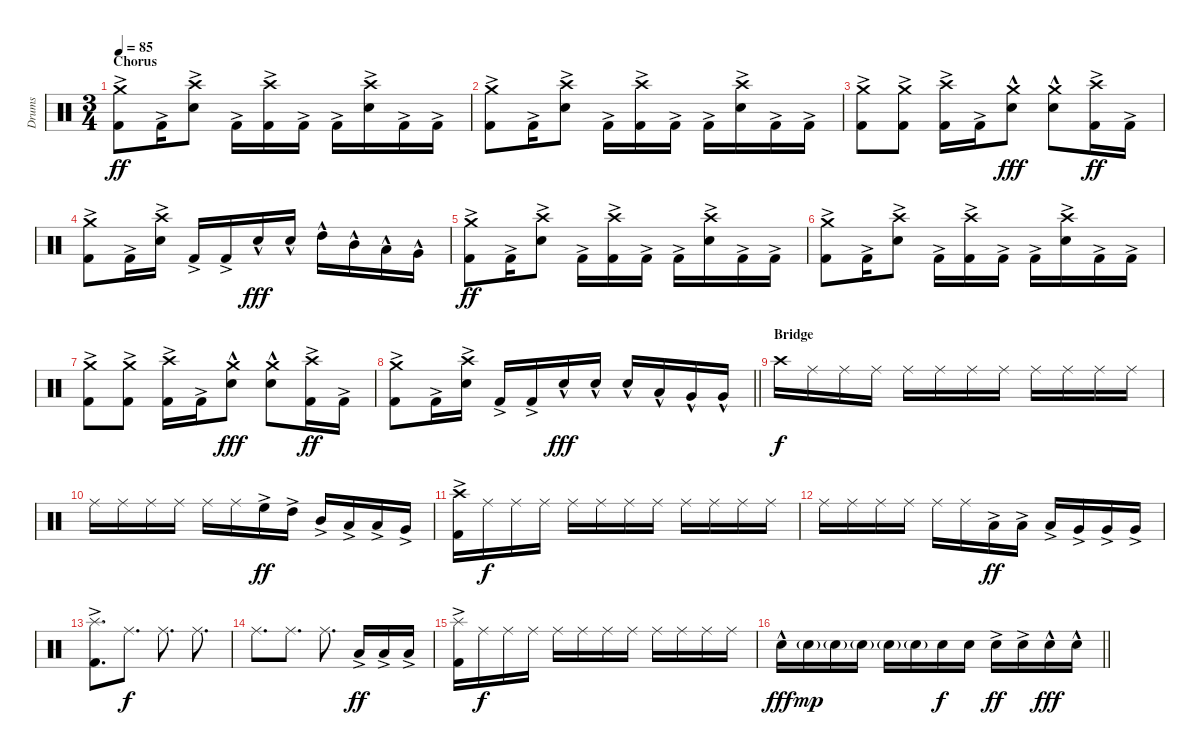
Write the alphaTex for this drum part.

\track ("Drums" "Drums") {instrument percussion}
\staff {score}
\articulation defaults
\ts (3 4)
\section ("" "Chorus")
\tempo 85
\clef neutral
\ks c
("Crash medium (hit)" "Kick (hit) 2"{ac}).8{dy ff} "Kick (hit) 2"{ac}.16 ("Crash high (hit)" "Electric Snare (hit)"{ac}).8 "Kick (hit) 2"{ac}.16 ("Crash high (hit)" "Kick (hit) 2"{ac}).16 "Kick (hit) 2"{ac}.16 "Kick (hit) 2"{ac}.16 ("Crash high (hit)" "Electric Snare (hit)"{ac}).16 "Kick (hit) 2"{ac}.16 "Kick (hit) 2"{ac}.16 |
("Crash medium (hit)" "Kick (hit) 2"{ac}).8 "Kick (hit) 2"{ac}.16 ("Crash high (hit)" "Electric Snare (hit)"{ac}).8 "Kick (hit) 2"{ac}.16 ("Crash high (hit)" "Kick (hit) 2"{ac}).16 "Kick (hit) 2"{ac}.16 "Kick (hit) 2"{ac}.16 ("Crash high (hit)" "Electric Snare (hit)"{ac}).16 "Kick (hit) 2"{ac}.16 "Kick (hit) 2"{ac}.16 |
("Crash medium (hit)" "Kick (hit) 2"{ac}).8 ("Crash medium (hit)" "Kick (hit) 2"{ac}).8 ("Crash high (hit)" "Kick (hit) 2"{ac}).16 "Kick (hit) 2"{ac}.16 ("Crash medium (hit)" "Electric Snare (hit)"{hac}).8{dy fff} ("Crash medium (hit)" "Electric Snare (hit)"{hac}).8 ("Crash high (hit)" "Kick (hit) 2"{ac}).16{dy ff} "Kick (hit) 2"{ac}.16 |
("Crash medium (hit)" "Kick (hit) 2"{ac}).8 "Kick (hit) 2"{ac}.16 ("Crash high (hit)" "Electric Snare (hit)"{ac}).16 "Kick (hit) 2"{ac}.16 "Kick (hit) 2"{ac}.16 "Electric Snare (hit)"{hac}.16{dy fff} "Electric Snare (hit)"{hac}.16 "High Tom (hit)"{hac}.16 "Mid Tom (hit)"{hac}.16 "Low Tom (hit)"{hac}.16 "Very Low Tom (hit)"{hac}.16 |
("Crash medium (hit)" "Kick (hit) 2"{ac}).8{dy ff} "Kick (hit) 2"{ac}.16 ("Crash high (hit)" "Electric Snare (hit)"{ac}).8 "Kick (hit) 2"{ac}.16 ("Crash high (hit)" "Kick (hit) 2"{ac}).16 "Kick (hit) 2"{ac}.16 "Kick (hit) 2"{ac}.16 ("Crash high (hit)" "Electric Snare (hit)"{ac}).16 "Kick (hit) 2"{ac}.16 "Kick (hit) 2"{ac}.16 |
("Crash medium (hit)" "Kick (hit) 2"{ac}).8 "Kick (hit) 2"{ac}.16 ("Crash high (hit)" "Electric Snare (hit)"{ac}).8 "Kick (hit) 2"{ac}.16 ("Crash high (hit)" "Kick (hit) 2"{ac}).16 "Kick (hit) 2"{ac}.16 "Kick (hit) 2"{ac}.16 ("Crash high (hit)" "Electric Snare (hit)"{ac}).16 "Kick (hit) 2"{ac}.16 "Kick (hit) 2"{ac}.16 |
("Crash medium (hit)" "Kick (hit) 2"{ac}).8 ("Crash medium (hit)" "Kick (hit) 2"{ac}).8 ("Crash high (hit)" "Kick (hit) 2"{ac}).16 "Kick (hit) 2"{ac}.16 ("Crash medium (hit)" "Electric Snare (hit)"{hac}).8{dy fff} ("Crash medium (hit)" "Electric Snare (hit)"{hac}).8 ("Crash high (hit)" "Kick (hit) 2"{ac}).16{dy ff} "Kick (hit) 2"{ac}.16 |
\barLineRight lightlight
("Crash medium (hit)" "Kick (hit) 2"{ac}).8 "Kick (hit) 2"{ac}.16 ("Crash high (hit)" "Electric Snare (hit)"{ac}).16 "Kick (hit) 2"{ac}.16 "Kick (hit) 2"{ac}.16 "Electric Snare (hit)"{hac}.16{dy fff} "Electric Snare (hit)"{hac}.16 "Electric Snare (hit)"{hac}.16 "Low Floor Tom (hit)"{hac}.16 "Very Low Tom (hit)"{hac}.16 "Very Low Tom (hit)"{hac}.16 |
\section ("" "Bridge")
"Crash high (hit)".16{dy f volume 10} "Ride (middle)".16 "Ride (middle)".16 "Ride (middle)".16 "Ride (middle)".16 "Ride (middle)".16 "Ride (middle)".16 "Ride (middle)".16 "Ride (middle)".16 "Ride (middle)".16 "Ride (middle)".16 "Ride (middle)".16 |
"Ride (middle)".16 "Ride (middle)".16 "Ride (middle)".16 "Ride (middle)".16 "Ride (middle)".16 "Ride (middle)".16 "High Floor Tom (hit)"{ac}.16{dy ff} "High Tom (hit)"{ac}.16 "Mid Tom (hit)"{ac}.16 "Low Tom (hit)"{ac}.16 "Low Tom (hit)"{ac}.16 "Very Low Tom (hit)"{ac}.16 |
("Crash high (hit)" "Kick (hit) 2"{ac}).16 "Ride (middle)".16{dy f} "Ride (middle)".16 "Ride (middle)".16 "Ride (middle)".16 "Ride (middle)".16 "Ride (middle)".16 "Ride (middle)".16 "Ride (middle)".16 "Ride (middle)".16 "Ride (middle)".16 "Ride (middle)".16 |
"Ride (middle)".16 "Ride (middle)".16 "Ride (middle)".16 "Ride (middle)".16 "Ride (middle)".16 "Ride (middle)".16 "Low Tom (hit)"{ac}.16{dy ff} "Low Tom (hit)"{ac}.16 "Low Tom (hit)"{ac}.16 "Very Low Tom (hit)"{ac}.16 "Very Low Tom (hit)"{ac}.16 "Very Low Tom (hit)"{ac}.16 |
("Splash (hit)" "Kick (hit) 2"{ac}).8{d} "Ride (middle)".8{d dy f} "Ride (middle)".8{d} "Ride (middle)".8{d} |
"Ride (middle)".8{d} "Ride (middle)".8{d} "Ride (middle)".8{d} "Low Floor Tom (hit)"{ac}.16{dy ff} "Low Floor Tom (hit)"{ac}.16 "Low Floor Tom (hit)"{ac}.16 |
("Splash (hit)" "Kick (hit) 2"{ac}).16 "Ride (middle)".16{dy f} "Ride (middle)".16 "Ride (middle)".16 "Ride (middle)".16 "Ride (middle)".16 "Ride (middle)".16 "Ride (middle)".16 "Ride (middle)".16 "Ride (middle)".16 "Ride (middle)".16 "Ride (middle)".16 |
\barLineRight lightlight "Electric Snare (hit)"{hac}.16{dy fff volume 14} "Electric Snare (hit)"{g}.16{dy mp} "Electric Snare (hit)"{g}.16 "Electric Snare (hit)"{g}.16 "Electric Snare (hit)"{g}.16 "Electric Snare (hit)"{g}.16 "Electric Snare (hit)".16{dy f} "Electric Snare (hit)".16 "Electric Snare (hit)"{ac}.16{dy ff} "Electric Snare (hit)"{ac}.16 "Electric Snare (hit)"{hac}.16{dy fff} "Electric Snare (hit)"{hac}.16
